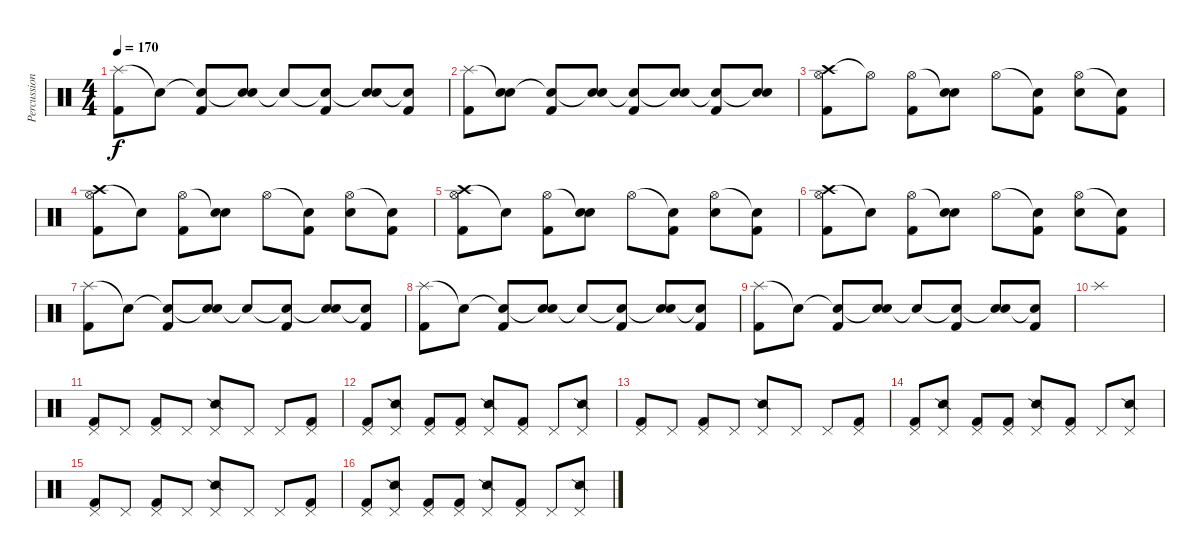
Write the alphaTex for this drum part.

\track ("Percussion" "Percussion") {instrument percussion}
\staff {score}
\articulation defaults
\ts (4 4)
\tempo 170
\clef neutral
\ks c
("Splash (hit)" "Kick (hit) 2").8{dy f} "Snare (hit)"{t}.8 ("Snare (hit)"{t} "Kick (hit) 2").8 ("Snare (hit)"{t} "Electric Snare (hit)").8 "Snare (hit)"{t}.8 ("Snare (hit)"{t} "Kick (hit) 2").8 ("Snare (hit)"{t} "Electric Snare (hit)").8 ("Snare (hit)"{t} "Kick (hit) 2").8 |
("Splash (hit)" "Kick (hit) 2").8 ("Snare (hit)"{t} "Electric Snare (hit)").8 ("Snare (hit)"{t} "Kick (hit) 2").8 ("Snare (hit)"{t} "Electric Snare (hit)").8 ("Snare (hit)"{t} "Kick (hit) 2").8 ("Snare (hit)"{t} "Electric Snare (hit)").8 ("Snare (hit)"{t} "Kick (hit) 2").8 ("Snare (hit)"{t} "Electric Snare (hit)").8 |
("Crash high (hit)" "Hi-Hat (open)" "Kick (hit) 2").8 "Hi-Hat (open)"{t}.8 ("Hi-Hat (open)" "Kick (hit) 2").8 ("Snare (hit)"{t} "Electric Snare (hit)").8 "Hi-Hat (open)".8 ("Snare (hit)"{t} "Kick (hit) 2").8 ("Hi-Hat (open)" "Electric Snare (hit)").8 ("Snare (hit)"{t} "Kick (hit) 2").8 |
("Crash high (hit)" "Hi-Hat (open)" "Kick (hit) 2").8 "Snare (hit)"{t}.8 ("Hi-Hat (open)" "Kick (hit) 2").8 ("Snare (hit)"{t} "Electric Snare (hit)").8 "Hi-Hat (open)".8 ("Snare (hit)"{t} "Kick (hit) 2").8 ("Hi-Hat (open)" "Electric Snare (hit)").8 ("Snare (hit)"{t} "Kick (hit) 2").8 |
("Crash high (hit)" "Hi-Hat (open)" "Kick (hit) 2").8 "Snare (hit)"{t}.8 ("Hi-Hat (open)" "Kick (hit) 2").8 ("Snare (hit)"{t} "Electric Snare (hit)").8 "Hi-Hat (open)".8 ("Snare (hit)"{t} "Kick (hit) 2").8 ("Hi-Hat (open)" "Electric Snare (hit)").8 ("Snare (hit)"{t} "Kick (hit) 2").8 |
("Crash high (hit)" "Hi-Hat (open)" "Kick (hit) 2").8 "Snare (hit)"{t}.8 ("Hi-Hat (open)" "Kick (hit) 2").8 ("Snare (hit)"{t} "Electric Snare (hit)").8 "Hi-Hat (open)".8 ("Snare (hit)"{t} "Kick (hit) 2").8 ("Hi-Hat (open)" "Electric Snare (hit)").8 ("Snare (hit)"{t} "Kick (hit) 2").8 |
("Splash (hit)" "Kick (hit) 2").8 "Snare (hit)"{t}.8 ("Snare (hit)"{t} "Kick (hit) 2").8 ("Snare (hit)"{t} "Electric Snare (hit)").8 "Snare (hit)"{t}.8 ("Snare (hit)"{t} "Kick (hit) 2").8 ("Snare (hit)"{t} "Electric Snare (hit)").8 ("Snare (hit)"{t} "Kick (hit) 2").8 |
("Splash (hit)" "Kick (hit) 2").8 "Snare (hit)"{t}.8 ("Snare (hit)"{t} "Kick (hit) 2").8 ("Snare (hit)"{t} "Electric Snare (hit)").8 "Snare (hit)"{t}.8 ("Snare (hit)"{t} "Kick (hit) 2").8 ("Snare (hit)"{t} "Electric Snare (hit)").8 ("Snare (hit)"{t} "Kick (hit) 2").8 |
("Splash (hit)" "Kick (hit) 2").8 "Snare (hit)"{t}.8 ("Snare (hit)"{t} "Kick (hit) 2").8 ("Snare (hit)"{t} "Electric Snare (hit)").8 "Snare (hit)"{t}.8 ("Snare (hit)"{t} "Kick (hit) 2").8 ("Snare (hit)"{t} "Electric Snare (hit)").8 ("Snare (hit)"{t} "Kick (hit) 2").8 |
"Splash (hit)".1 |
("Pedal Hi-Hat (hit)" "Kick (hit) 2").8 "Pedal Hi-Hat (hit)".8 ("Pedal Hi-Hat (hit)" "Kick (hit) 2").8 "Pedal Hi-Hat (hit)".8 ("Pedal Hi-Hat (hit)" "Snare (side stick) 2").8 "Pedal Hi-Hat (hit)".8 "Pedal Hi-Hat (hit)".8 ("Pedal Hi-Hat (hit)" "Kick (hit) 2").8 |
("Pedal Hi-Hat (hit)" "Kick (hit) 2").8 ("Pedal Hi-Hat (hit)" "Snare (side stick) 2").8 ("Pedal Hi-Hat (hit)" "Kick (hit) 2").8 ("Pedal Hi-Hat (hit)" "Kick (hit) 2").8 ("Pedal Hi-Hat (hit)" "Snare (side stick) 2").8 ("Pedal Hi-Hat (hit)" "Kick (hit) 2").8 "Pedal Hi-Hat (hit)".8 ("Pedal Hi-Hat (hit)" "Snare (side stick) 2").8 |
("Pedal Hi-Hat (hit)" "Kick (hit) 2").8 "Pedal Hi-Hat (hit)".8 ("Pedal Hi-Hat (hit)" "Kick (hit) 2").8 "Pedal Hi-Hat (hit)".8 ("Pedal Hi-Hat (hit)" "Snare (side stick) 2").8 "Pedal Hi-Hat (hit)".8 "Pedal Hi-Hat (hit)".8 ("Pedal Hi-Hat (hit)" "Kick (hit) 2").8 |
("Pedal Hi-Hat (hit)" "Kick (hit) 2").8 ("Pedal Hi-Hat (hit)" "Snare (side stick) 2").8 ("Pedal Hi-Hat (hit)" "Kick (hit) 2").8 ("Pedal Hi-Hat (hit)" "Kick (hit) 2").8 ("Pedal Hi-Hat (hit)" "Snare (side stick) 2").8 ("Pedal Hi-Hat (hit)" "Kick (hit) 2").8 "Pedal Hi-Hat (hit)".8 ("Pedal Hi-Hat (hit)" "Snare (side stick) 2").8 |
("Pedal Hi-Hat (hit)" "Kick (hit) 2").8 "Pedal Hi-Hat (hit)".8 ("Pedal Hi-Hat (hit)" "Kick (hit) 2").8 "Pedal Hi-Hat (hit)".8 ("Pedal Hi-Hat (hit)" "Snare (side stick) 2").8 "Pedal Hi-Hat (hit)".8 "Pedal Hi-Hat (hit)".8 ("Pedal Hi-Hat (hit)" "Kick (hit) 2").8 |
("Pedal Hi-Hat (hit)" "Kick (hit) 2").8 ("Pedal Hi-Hat (hit)" "Snare (side stick) 2").8 ("Pedal Hi-Hat (hit)" "Kick (hit) 2").8 ("Pedal Hi-Hat (hit)" "Kick (hit) 2").8 ("Pedal Hi-Hat (hit)" "Snare (side stick) 2").8 ("Pedal Hi-Hat (hit)" "Kick (hit) 2").8 "Pedal Hi-Hat (hit)".8 ("Pedal Hi-Hat (hit)" "Snare (side stick) 2").8
